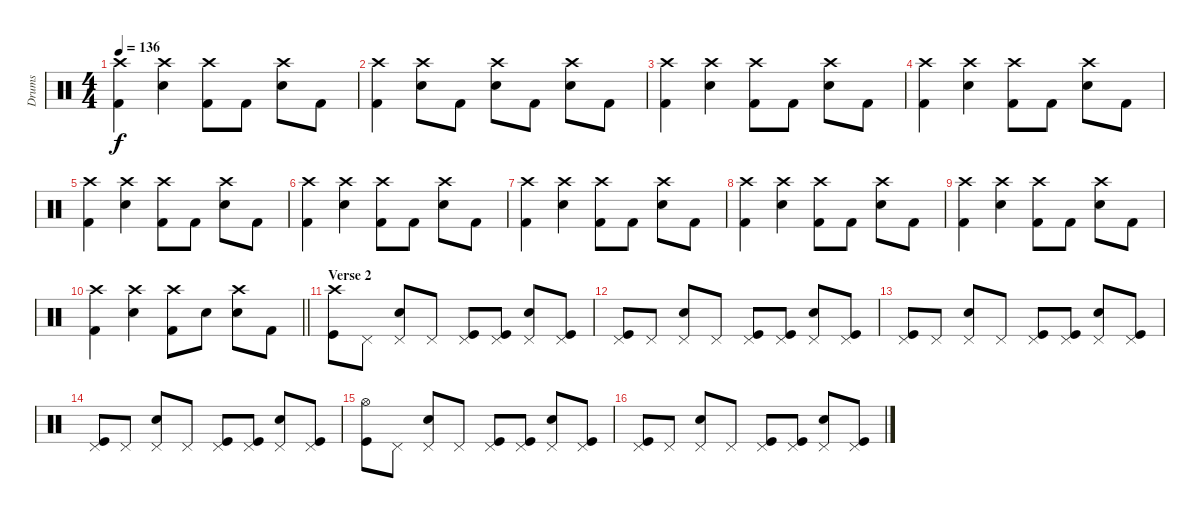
\track ("Drums" "Drums") {instrument percussion}
\staff {score}
\articulation defaults
\ts (4 4)
\tempo 136
\clef neutral
\ks c
("Crash high (hit)" "Kick (hit) 2").4{dy f} ("Crash high (hit)" "Electric Snare (hit)").4 ("Crash high (hit)" "Kick (hit) 2").8 "Kick (hit) 2".8 ("Crash high (hit)" "Electric Snare (hit)").8 "Kick (hit) 2".8 |
("Crash high (hit)" "Kick (hit) 2").4 ("Crash high (hit)" "Electric Snare (hit)").8 "Kick (hit) 2".8 ("Crash high (hit)" "Electric Snare (hit)").8 "Kick (hit) 2".8 ("Crash high (hit)" "Electric Snare (hit)").8 "Kick (hit) 2".8 |
("Crash high (hit)" "Kick (hit) 2").4 ("Crash high (hit)" "Electric Snare (hit)").4 ("Crash high (hit)" "Kick (hit) 2").8 "Kick (hit) 2".8 ("Crash high (hit)" "Electric Snare (hit)").8 "Kick (hit) 2".8 |
("Crash high (hit)" "Kick (hit) 2").4 ("Crash high (hit)" "Electric Snare (hit)").4 ("Crash high (hit)" "Kick (hit) 2").8 "Kick (hit) 2".8 ("Crash high (hit)" "Electric Snare (hit)").8 "Kick (hit) 2".8 |
("Crash high (hit)" "Kick (hit) 2").4 ("Crash high (hit)" "Electric Snare (hit)").4 ("Crash high (hit)" "Kick (hit) 2").8 "Kick (hit) 2".8 ("Crash high (hit)" "Electric Snare (hit)").8 "Kick (hit) 2".8 |
("Crash high (hit)" "Kick (hit) 2").4 ("Crash high (hit)" "Electric Snare (hit)").4 ("Crash high (hit)" "Kick (hit) 2").8 "Kick (hit) 2".8 ("Crash high (hit)" "Electric Snare (hit)").8 "Kick (hit) 2".8 |
("Crash high (hit)" "Kick (hit) 2").4 ("Crash high (hit)" "Electric Snare (hit)").4 ("Crash high (hit)" "Kick (hit) 2").8 "Kick (hit) 2".8 ("Crash high (hit)" "Electric Snare (hit)").8 "Kick (hit) 2".8 |
("Crash high (hit)" "Kick (hit) 2").4 ("Crash high (hit)" "Electric Snare (hit)").4 ("Crash high (hit)" "Kick (hit) 2").8 "Kick (hit) 2".8 ("Crash high (hit)" "Electric Snare (hit)").8 "Kick (hit) 2".8 |
("Crash high (hit)" "Kick (hit) 2").4 ("Crash high (hit)" "Electric Snare (hit)").4 ("Crash high (hit)" "Kick (hit) 2").8 "Kick (hit) 2".8 ("Crash high (hit)" "Electric Snare (hit)").8 "Kick (hit) 2".8 |
\barLineRight lightlight
("Crash high (hit)" "Kick (hit) 2").4 ("Crash high (hit)" "Electric Snare (hit)").4 ("Crash high (hit)" "Kick (hit) 2").8 "Snare (hit) 2".8 ("Crash high (hit)" "Electric Snare (hit)").8 "Kick (hit) 2".8 |
\section ("" "Verse 2")
("Crash high (hit)" "Kick (hit)").8 "Pedal Hi-Hat (hit)".8 ("Pedal Hi-Hat (hit)" "Electric Snare (hit)").8 "Pedal Hi-Hat (hit)".8 ("Pedal Hi-Hat (hit)" "Kick (hit)").8 ("Pedal Hi-Hat (hit)" "Kick (hit)").8 ("Pedal Hi-Hat (hit)" "Electric Snare (hit)").8 ("Pedal Hi-Hat (hit)" "Kick (hit)").8 |
("Pedal Hi-Hat (hit)" "Kick (hit)").8 "Pedal Hi-Hat (hit)".8 ("Pedal Hi-Hat (hit)" "Electric Snare (hit)").8 "Pedal Hi-Hat (hit)".8 ("Pedal Hi-Hat (hit)" "Kick (hit)").8 ("Pedal Hi-Hat (hit)" "Kick (hit)").8 ("Pedal Hi-Hat (hit)" "Electric Snare (hit)").8 ("Pedal Hi-Hat (hit)" "Kick (hit)").8 |
("Pedal Hi-Hat (hit)" "Kick (hit)").8 "Pedal Hi-Hat (hit)".8 ("Pedal Hi-Hat (hit)" "Electric Snare (hit)").8 "Pedal Hi-Hat (hit)".8 ("Pedal Hi-Hat (hit)" "Kick (hit)").8 ("Pedal Hi-Hat (hit)" "Kick (hit)").8 ("Pedal Hi-Hat (hit)" "Electric Snare (hit)").8 ("Pedal Hi-Hat (hit)" "Kick (hit)").8 |
("Pedal Hi-Hat (hit)" "Kick (hit)").8 "Pedal Hi-Hat (hit)".8 ("Pedal Hi-Hat (hit)" "Electric Snare (hit)").8 "Pedal Hi-Hat (hit)".8 ("Pedal Hi-Hat (hit)" "Kick (hit)").8 ("Pedal Hi-Hat (hit)" "Kick (hit)").8 ("Pedal Hi-Hat (hit)" "Electric Snare (hit)").8 ("Pedal Hi-Hat (hit)" "Kick (hit)").8 |
("Hi-Hat (open)" "Kick (hit)").8 "Pedal Hi-Hat (hit)".8 ("Pedal Hi-Hat (hit)" "Electric Snare (hit)").8 "Pedal Hi-Hat (hit)".8 ("Pedal Hi-Hat (hit)" "Kick (hit)").8 ("Pedal Hi-Hat (hit)" "Kick (hit)").8 ("Pedal Hi-Hat (hit)" "Electric Snare (hit)").8 ("Pedal Hi-Hat (hit)" "Kick (hit)").8 |
("Pedal Hi-Hat (hit)" "Kick (hit)").8 "Pedal Hi-Hat (hit)".8 ("Pedal Hi-Hat (hit)" "Electric Snare (hit)").8 "Pedal Hi-Hat (hit)".8 ("Pedal Hi-Hat (hit)" "Kick (hit)").8 ("Pedal Hi-Hat (hit)" "Kick (hit)").8 ("Pedal Hi-Hat (hit)" "Electric Snare (hit)").8 ("Pedal Hi-Hat (hit)" "Kick (hit)").8
